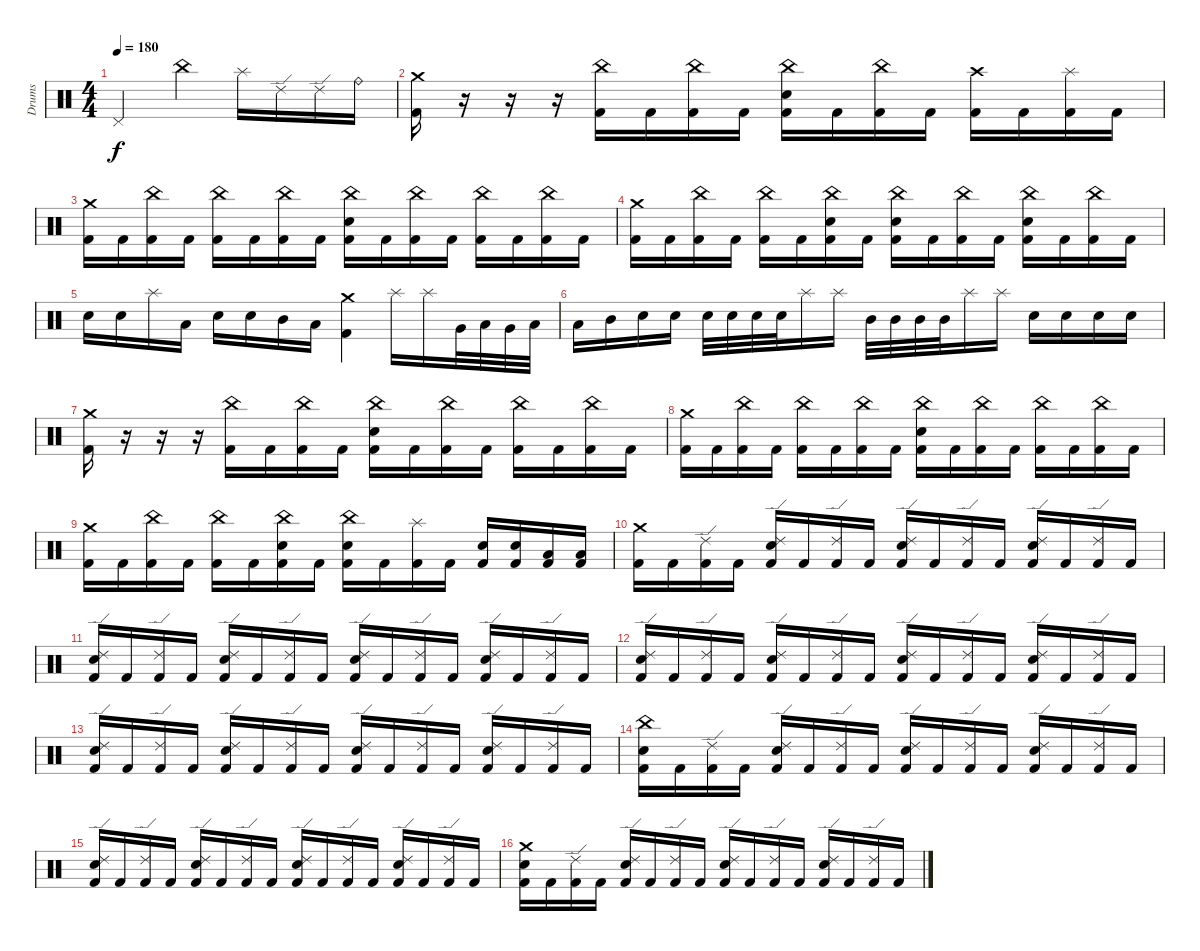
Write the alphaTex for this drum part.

\track ("Drums" "Drums") {instrument percussion}
\staff {score}
\articulation defaults
\ts (4 4)
\tempo 180
\clef neutral
\ks c "Pedal Hi-Hat (hit)".2{dy f} "China (hit)".4 "Splash (hit)".16 "Ride (edge) 2".16 "Ride (edge) 2".16 "Ride (bell)".16
|
("Crash medium (hit)" "Kick (hit) 2").16 r.16 r.16 r.16 ("China (hit)" "Kick (hit) 2").16 "Kick (hit) 2".16 ("China (hit)" "Kick (hit) 2").16 "Kick (hit) 2".16 ("China (hit)" "Snare (hit) 2" "Kick (hit) 2").16 "Kick (hit) 2".16 ("China (hit)" "Kick (hit) 2").16 "Kick (hit) 2".16 ("Crash high (hit)" "Kick (hit) 2").16 "Kick (hit) 2".16 ("Splash (hit)" "Kick (hit) 2").16 "Kick (hit) 2".16 |
("Crash medium (hit)" "Kick (hit) 2").16 "Kick (hit) 2".16 ("China (hit)" "Kick (hit) 2").16 "Kick (hit) 2".16 ("China (hit)" "Kick (hit) 2").16 "Kick (hit) 2".16 ("China (hit)" "Kick (hit) 2").16 "Kick (hit) 2".16 ("China (hit)" "Snare (hit) 2" "Kick (hit) 2").16 "Kick (hit) 2".16 ("China (hit)" "Kick (hit) 2").16 "Kick (hit) 2".16 ("China (hit)" "Kick (hit) 2").16 "Kick (hit) 2".16 ("China (hit)" "Kick (hit) 2").16 "Kick (hit) 2".16 |
("Crash medium (hit)" "Kick (hit) 2").16 "Kick (hit) 2".16 ("China (hit)" "Kick (hit) 2").16 "Kick (hit) 2".16 ("China (hit)" "Kick (hit) 2").16 "Kick (hit) 2".16 ("China (hit)" "Snare (hit) 2" "Kick (hit) 2").16 "Kick (hit) 2".16 ("China (hit)" "Snare (hit) 2" "Kick (hit) 2").16 "Kick (hit) 2".16 ("China (hit)" "Kick (hit) 2").16 "Kick (hit) 2".16 ("China (hit)" "Snare (hit) 2" "Kick (hit) 2").16 "Kick (hit) 2".16 ("China (hit)" "Kick (hit) 2").16 "Kick (hit) 2".16 |
"Snare (hit) 2".16 "Snare (hit) 2".16 "Splash (hit)".16 "Low Tom (hit)".16 "Snare (hit) 2".16 "Snare (hit) 2".16 "Mid Tom (hit)".16 "Low Tom (hit)".16 ("Crash medium (hit)" "Kick (hit) 2").4 "Splash (hit)".16 "Splash (hit)".16 "Very Low Tom (hit)".32 "Low Tom (hit)".32 "Very Low Tom (hit)".32 "Low Tom (hit)".32 |
"Low Floor Tom (hit)".16 "Mid Tom (hit)".16 "Snare (hit) 2".16 "Snare (hit) 2".16 "Snare (hit) 2".32 "Snare (hit) 2".32 "Snare (hit) 2".32 "Snare (hit) 2".32 "Splash (hit)".16 "Splash (hit)".16 "Mid Tom (hit)".32 "Mid Tom (hit)".32 "Mid Tom (hit)".32 "Mid Tom (hit)".32 "Splash (hit)".16 "Splash (hit)".16 "Snare (hit) 2".16 "Snare (hit) 2".16 "Snare (hit) 2".16 "Snare (hit) 2".16 |
("Crash medium (hit)" "Kick (hit) 2").16 r.16 r.16 r.16 ("China (hit)" "Kick (hit) 2").16 "Kick (hit) 2".16 ("China (hit)" "Kick (hit) 2").16 "Kick (hit) 2".16 ("China (hit)" "Snare (hit) 2" "Kick (hit) 2").16 "Kick (hit) 2".16 ("China (hit)" "Kick (hit) 2").16 "Kick (hit) 2".16 ("China (hit)" "Kick (hit) 2").16 "Kick (hit) 2".16 ("China (hit)" "Kick (hit) 2").16 "Kick (hit) 2".16 |
("Crash medium (hit)" "Kick (hit) 2").16 "Kick (hit) 2".16 ("China (hit)" "Kick (hit) 2").16 "Kick (hit) 2".16 ("China (hit)" "Kick (hit) 2").16 "Kick (hit) 2".16 ("China (hit)" "Kick (hit) 2").16 "Kick (hit) 2".16 ("China (hit)" "Snare (hit) 2" "Kick (hit) 2").16 "Kick (hit) 2".16 ("China (hit)" "Kick (hit) 2").16 "Kick (hit) 2".16 ("China (hit)" "Kick (hit) 2").16 "Kick (hit) 2".16 ("China (hit)" "Kick (hit) 2").16 "Kick (hit) 2".16 |
("Crash medium (hit)" "Kick (hit) 2").16 "Kick (hit) 2".16 ("China (hit)" "Kick (hit) 2").16 "Kick (hit) 2".16 ("China (hit)" "Kick (hit) 2").16 "Kick (hit) 2".16 ("China (hit)" "Snare (hit) 2" "Kick (hit) 2").16 "Kick (hit) 2".16 ("China (hit)" "Snare (hit) 2" "Kick (hit) 2").16 "Kick (hit) 2".16 ("Splash (hit)" "Kick (hit) 2").16 "Kick (hit) 2".16 ("Snare (hit) 2" "Kick (hit) 2").16 ("Snare (hit) 2" "Kick (hit) 2").16 ("Low Tom (hit)" "Kick (hit) 2").16 ("Low Tom (hit)" "Kick (hit) 2").16 |
("Crash medium (hit)" "Kick (hit) 2").16 "Kick (hit) 2".16 ("Ride (edge) 2" "Kick (hit) 2").16 "Kick (hit) 2".16 ("Ride (edge) 2" "Snare (hit) 2" "Kick (hit) 2").16 "Kick (hit) 2".16 ("Ride (edge) 2" "Kick (hit) 2").16 "Kick (hit) 2".16 ("Ride (edge) 2" "Snare (hit) 2" "Kick (hit) 2").16 "Kick (hit) 2".16 ("Ride (edge) 2" "Kick (hit) 2").16 "Kick (hit) 2".16 ("Ride (edge) 2" "Snare (hit) 2" "Kick (hit) 2").16 "Kick (hit) 2".16 ("Ride (edge) 2" "Kick (hit) 2").16 "Kick (hit) 2".16 |
("Ride (edge) 2" "Snare (hit) 2" "Kick (hit) 2").16 "Kick (hit) 2".16 ("Ride (edge) 2" "Kick (hit) 2").16 "Kick (hit) 2".16 ("Ride (edge) 2" "Snare (hit) 2" "Kick (hit) 2").16 "Kick (hit) 2".16 ("Ride (edge) 2" "Kick (hit) 2").16 "Kick (hit) 2".16 ("Ride (edge) 2" "Snare (hit) 2" "Kick (hit) 2").16 "Kick (hit) 2".16 ("Ride (edge) 2" "Kick (hit) 2").16 "Kick (hit) 2".16 ("Ride (edge) 2" "Snare (hit) 2" "Kick (hit) 2").16 "Kick (hit) 2".16 ("Ride (edge) 2" "Kick (hit) 2").16 "Kick (hit) 2".16 |
("Ride (edge) 2" "Snare (hit) 2" "Kick (hit) 2").16 "Kick (hit) 2".16 ("Ride (edge) 2" "Kick (hit) 2").16 "Kick (hit) 2".16 ("Ride (edge) 2" "Snare (hit) 2" "Kick (hit) 2").16 "Kick (hit) 2".16 ("Ride (edge) 2" "Kick (hit) 2").16 "Kick (hit) 2".16 ("Ride (edge) 2" "Snare (hit) 2" "Kick (hit) 2").16 "Kick (hit) 2".16 ("Ride (edge) 2" "Kick (hit) 2").16 "Kick (hit) 2".16 ("Ride (edge) 2" "Snare (hit) 2" "Kick (hit) 2").16 "Kick (hit) 2".16 ("Ride (edge) 2" "Kick (hit) 2").16 "Kick (hit) 2".16 |
("Ride (edge) 2" "Snare (hit) 2" "Kick (hit) 2").16 "Kick (hit) 2".16 ("Ride (edge) 2" "Kick (hit) 2").16 "Kick (hit) 2".16 ("Ride (edge) 2" "Snare (hit) 2" "Kick (hit) 2").16 "Kick (hit) 2".16 ("Ride (edge) 2" "Kick (hit) 2").16 "Kick (hit) 2".16 ("Ride (edge) 2" "Snare (hit) 2" "Kick (hit) 2").16 "Kick (hit) 2".16 ("Ride (edge) 2" "Kick (hit) 2").16 "Kick (hit) 2".16 ("Ride (edge) 2" "Snare (hit) 2" "Kick (hit) 2").16 "Kick (hit) 2".16 ("Ride (edge) 2" "Kick (hit) 2").16 "Kick (hit) 2".16 |
("China (hit)" "Snare (hit) 2" "Kick (hit) 2").16 "Kick (hit) 2".16 ("Ride (edge) 2" "Kick (hit) 2").16 "Kick (hit) 2".16 ("Ride (edge) 2" "Snare (hit) 2" "Kick (hit) 2").16 "Kick (hit) 2".16 ("Ride (edge) 2" "Kick (hit) 2").16 "Kick (hit) 2".16 ("Ride (edge) 2" "Snare (hit) 2" "Kick (hit) 2").16 "Kick (hit) 2".16 ("Ride (edge) 2" "Kick (hit) 2").16 "Kick (hit) 2".16 ("Ride (edge) 2" "Snare (hit) 2" "Kick (hit) 2").16 "Kick (hit) 2".16 ("Ride (edge) 2" "Kick (hit) 2").16 "Kick (hit) 2".16 |
("Ride (edge) 2" "Snare (hit) 2" "Kick (hit) 2").16 "Kick (hit) 2".16 ("Ride (edge) 2" "Kick (hit) 2").16 "Kick (hit) 2".16 ("Ride (edge) 2" "Snare (hit) 2" "Kick (hit) 2").16 "Kick (hit) 2".16 ("Ride (edge) 2" "Kick (hit) 2").16 "Kick (hit) 2".16 ("Ride (edge) 2" "Snare (hit) 2" "Kick (hit) 2").16 "Kick (hit) 2".16 ("Ride (edge) 2" "Kick (hit) 2").16 "Kick (hit) 2".16 ("Ride (edge) 2" "Snare (hit) 2" "Kick (hit) 2").16 "Kick (hit) 2".16 ("Ride (edge) 2" "Kick (hit) 2").16 "Kick (hit) 2".16 |
("Crash medium (hit)" "Snare (hit) 2" "Kick (hit) 2").16 "Kick (hit) 2".16 ("Ride (edge) 2" "Kick (hit) 2").16 "Kick (hit) 2".16 ("Ride (edge) 2" "Snare (hit) 2" "Kick (hit) 2").16 "Kick (hit) 2".16 ("Ride (edge) 2" "Kick (hit) 2").16 "Kick (hit) 2".16 ("Ride (edge) 2" "Snare (hit) 2" "Kick (hit) 2").16 "Kick (hit) 2".16 ("Ride (edge) 2" "Kick (hit) 2").16 "Kick (hit) 2".16 ("Ride (edge) 2" "Snare (hit) 2" "Kick (hit) 2").16 "Kick (hit) 2".16 ("Ride (edge) 2" "Kick (hit) 2").16 "Kick (hit) 2".16
